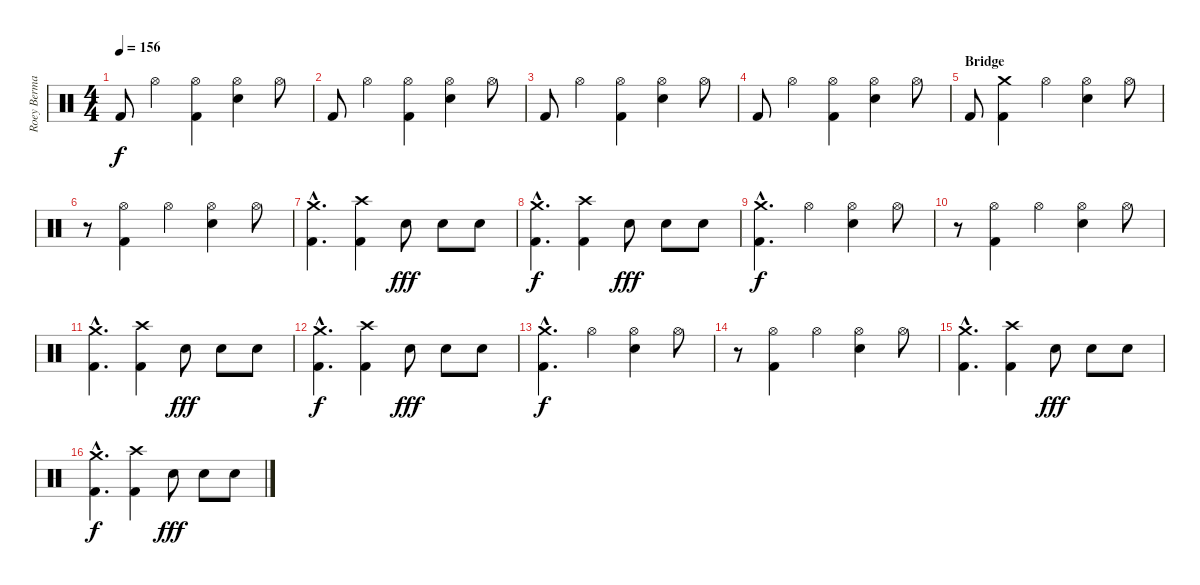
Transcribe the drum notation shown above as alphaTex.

\track ("Roey Berman" "Roey Berma") {instrument percussion}
\staff {score}
\articulation defaults
\ts (4 4)
\tempo 156
\clef neutral
\ks c "Kick (hit) 2".8{dy f} "Hi-Hat (open)".4
("Hi-Hat (open)" "Kick (hit) 2").4 ("Hi-Hat (open)" "Electric Snare (hit)").4 "Hi-Hat (open)".8 |
"Kick (hit) 2".8 "Hi-Hat (open)".4 ("Hi-Hat (open)" "Kick (hit) 2").4 ("Hi-Hat (open)" "Electric Snare (hit)").4 "Hi-Hat (open)".8 |
"Kick (hit) 2".8 "Hi-Hat (open)".4 ("Hi-Hat (open)" "Kick (hit) 2").4 ("Hi-Hat (open)" "Electric Snare (hit)").4 "Hi-Hat (open)".8 |
"Kick (hit) 2".8 "Hi-Hat (open)".4 ("Hi-Hat (open)" "Kick (hit) 2").4 ("Hi-Hat (open)" "Electric Snare (hit)").4 "Hi-Hat (open)".8 |
\section ("" "Bridge")
"Kick (hit) 2".8 ("Crash medium (hit)" "Kick (hit) 2").4 "Hi-Hat (open)".4 ("Hi-Hat (open)" "Electric Snare (hit)").4 "Hi-Hat (open)".8 |
r.8 ("Hi-Hat (open)" "Kick (hit) 2").4 "Hi-Hat (open)".4 ("Hi-Hat (open)" "Electric Snare (hit)").4 "Hi-Hat (open)".8 |
("Crash medium (hit)"{hac} "Kick (hit) 2"{hac}).4{d} ("Crash high (hit)" "Kick (hit) 2").4 "Electric Snare (hit)".8{dy fff} "Electric Snare (hit)".8 "Electric Snare (hit)".8 |
("Crash medium (hit)"{hac} "Kick (hit) 2"{hac}).4{d dy f} ("Crash high (hit)" "Kick (hit) 2").4 "Electric Snare (hit)".8{dy fff} "Electric Snare (hit)".8 "Electric Snare (hit)".8 |
("Crash medium (hit)"{hac} "Kick (hit) 2"{hac}).4{d dy f} "Hi-Hat (open)".4 ("Hi-Hat (open)" "Electric Snare (hit)").4 "Hi-Hat (open)".8 |
r.8 ("Hi-Hat (open)" "Kick (hit) 2").4 "Hi-Hat (open)".4 ("Hi-Hat (open)" "Electric Snare (hit)").4 "Hi-Hat (open)".8 |
("Crash medium (hit)"{hac} "Kick (hit) 2"{hac}).4{d} ("Crash high (hit)" "Kick (hit) 2").4 "Electric Snare (hit)".8{dy fff} "Electric Snare (hit)".8 "Electric Snare (hit)".8 |
("Crash medium (hit)"{hac} "Kick (hit) 2"{hac}).4{d dy f} ("Crash high (hit)" "Kick (hit) 2").4 "Electric Snare (hit)".8{dy fff} "Electric Snare (hit)".8 "Electric Snare (hit)".8 |
("Crash medium (hit)"{hac} "Kick (hit) 2"{hac}).4{d dy f} "Hi-Hat (open)".4 ("Hi-Hat (open)" "Electric Snare (hit)").4 "Hi-Hat (open)".8 |
r.8 ("Hi-Hat (open)" "Kick (hit) 2").4 "Hi-Hat (open)".4 ("Hi-Hat (open)" "Electric Snare (hit)").4 "Hi-Hat (open)".8 |
("Crash medium (hit)"{hac} "Kick (hit) 2"{hac}).4{d} ("Crash high (hit)" "Kick (hit) 2").4 "Electric Snare (hit)".8{dy fff} "Electric Snare (hit)".8 "Electric Snare (hit)".8 |
("Crash medium (hit)"{hac} "Kick (hit) 2"{hac}).4{d dy f} ("Crash high (hit)" "Kick (hit) 2").4 "Electric Snare (hit)".8{dy fff} "Electric Snare (hit)".8 "Electric Snare (hit)".8
